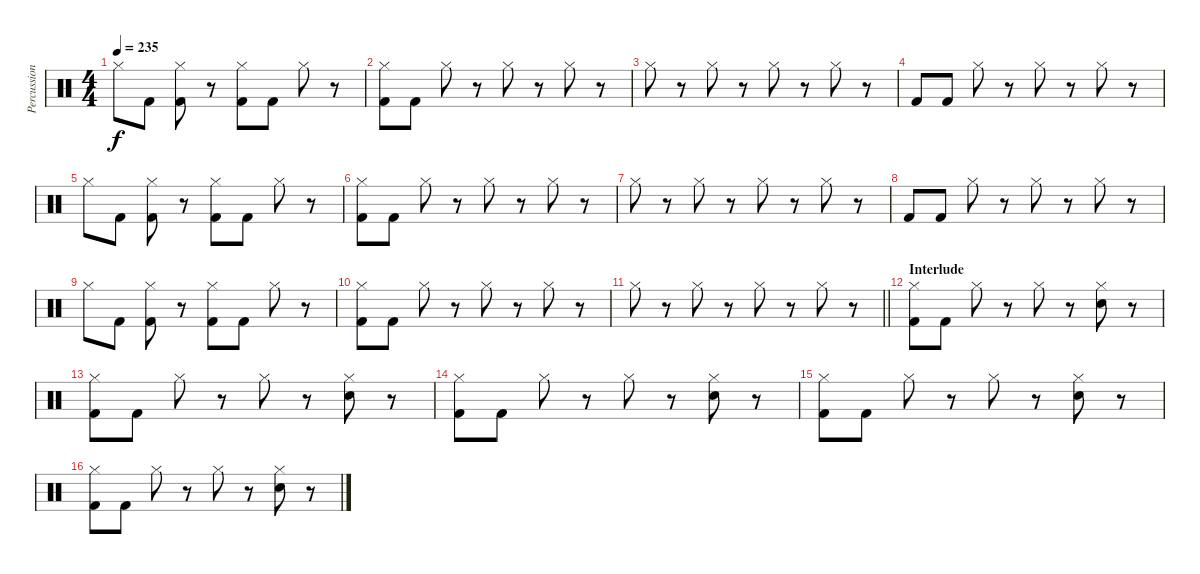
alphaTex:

\track ("Percussion" "Percussion") {instrument percussion}
\staff {score}
\articulation defaults
\ts (4 4)
\tempo 235
\clef neutral
\ks c "Hi-Hat (closed)".8{dy f} "Kick (hit) 2".8
("Hi-Hat (closed)" "Kick (hit) 2").8 r.8 ("Hi-Hat (closed)" "Kick (hit) 2").8 "Kick (hit) 2".8 "Hi-Hat (closed)".8 r.8 |
("Hi-Hat (closed)" "Kick (hit) 2").8 "Kick (hit) 2".8 "Hi-Hat (closed)".8 r.8 "Hi-Hat (closed)".8 r.8 "Hi-Hat (closed)".8 r.8 |
"Hi-Hat (closed)".8 r.8 "Hi-Hat (closed)".8 r.8 "Hi-Hat (closed)".8 r.8 "Hi-Hat (closed)".8 r.8 |
"Kick (hit) 2".8 "Kick (hit) 2".8 "Hi-Hat (closed)".8 r.8 "Hi-Hat (closed)".8 r.8 "Hi-Hat (closed)".8 r.8 |
"Hi-Hat (closed)".8 "Kick (hit) 2".8 ("Hi-Hat (closed)" "Kick (hit) 2").8 r.8 ("Hi-Hat (closed)" "Kick (hit) 2").8 "Kick (hit) 2".8 "Hi-Hat (closed)".8 r.8 |
("Hi-Hat (closed)" "Kick (hit) 2").8 "Kick (hit) 2".8 "Hi-Hat (closed)".8 r.8 "Hi-Hat (closed)".8 r.8 "Hi-Hat (closed)".8 r.8 |
"Hi-Hat (closed)".8 r.8 "Hi-Hat (closed)".8 r.8 "Hi-Hat (closed)".8 r.8 "Hi-Hat (closed)".8 r.8 |
"Kick (hit) 2".8 "Kick (hit) 2".8 "Hi-Hat (closed)".8 r.8 "Hi-Hat (closed)".8 r.8 "Hi-Hat (closed)".8 r.8 |
"Hi-Hat (closed)".8 "Kick (hit) 2".8 ("Hi-Hat (closed)" "Kick (hit) 2").8 r.8 ("Hi-Hat (closed)" "Kick (hit) 2").8 "Kick (hit) 2".8 "Hi-Hat (closed)".8 r.8 |
("Hi-Hat (closed)" "Kick (hit) 2").8 "Kick (hit) 2".8 "Hi-Hat (closed)".8 r.8 "Hi-Hat (closed)".8 r.8 "Hi-Hat (closed)".8 r.8 |
\barLineRight lightlight "Hi-Hat (closed)".8
r.8 "Hi-Hat (closed)".8 r.8 "Hi-Hat (closed)".8 r.8 "Hi-Hat (closed)".8 r.8 |
\section ("" "Interlude")
("Hi-Hat (closed)" "Kick (hit) 2").8 "Kick (hit) 2".8 "Hi-Hat (closed)".8 r.8 "Hi-Hat (closed)".8 r.8 ("Hi-Hat (closed)" "Electric Snare (hit)").8 r.8 |
("Hi-Hat (closed)" "Kick (hit) 2").8 "Kick (hit) 2".8 "Hi-Hat (closed)".8 r.8 "Hi-Hat (closed)".8 r.8 ("Hi-Hat (closed)" "Electric Snare (hit)").8 r.8 |
("Hi-Hat (closed)" "Kick (hit) 2").8 "Kick (hit) 2".8 "Hi-Hat (closed)".8 r.8 "Hi-Hat (closed)".8 r.8 ("Hi-Hat (closed)" "Electric Snare (hit)").8 r.8 |
("Hi-Hat (closed)" "Kick (hit) 2").8 "Kick (hit) 2".8 "Hi-Hat (closed)".8 r.8 "Hi-Hat (closed)".8 r.8 ("Hi-Hat (closed)" "Electric Snare (hit)").8 r.8 |
("Hi-Hat (closed)" "Kick (hit) 2").8 "Kick (hit) 2".8 "Hi-Hat (closed)".8 r.8 "Hi-Hat (closed)".8 r.8 ("Hi-Hat (closed)" "Electric Snare (hit)").8 r.8
